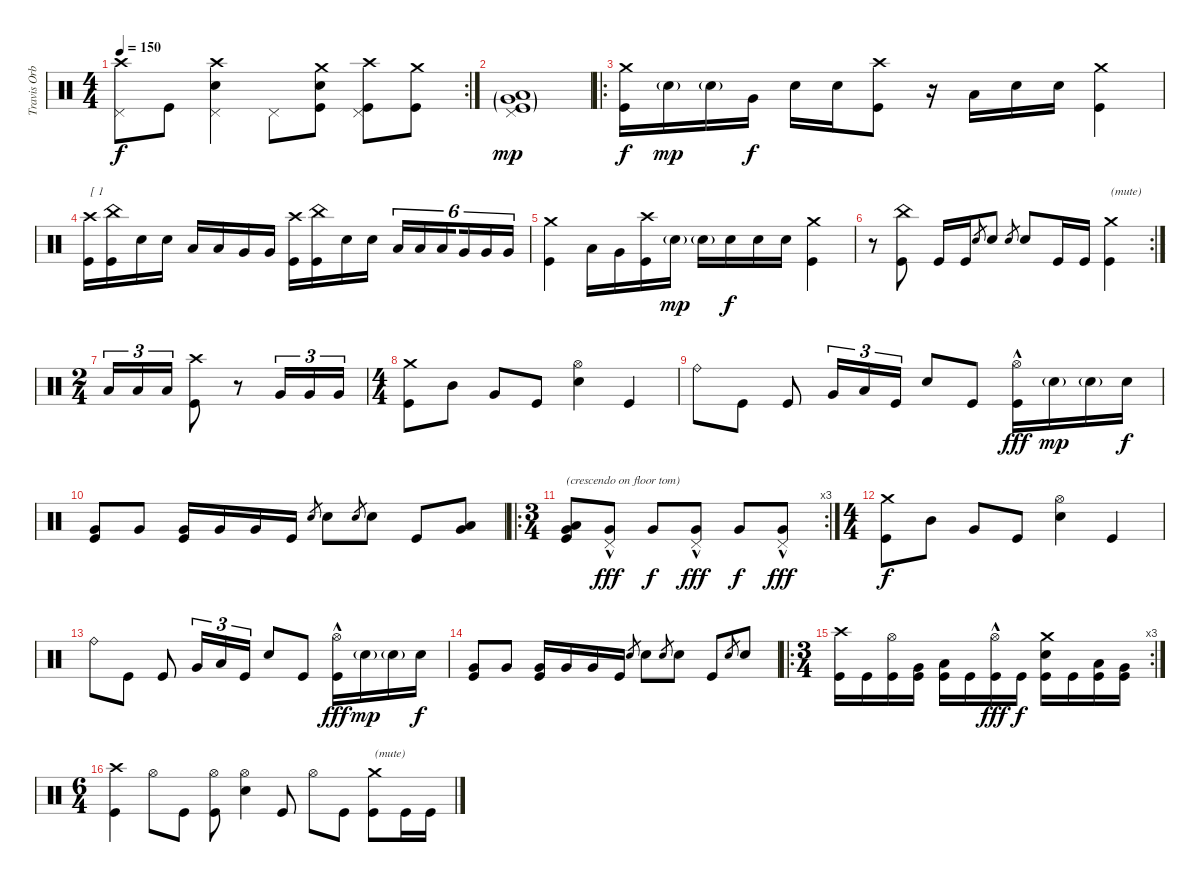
\track ("Travis Orbin" "Travis Orb") {instrument percussion}
\staff {score}
\articulation defaults
\rc 2
\ts (4 4)
\tempo 150
\clef neutral
\ks c
("Crash high (hit)" "Pedal Hi-Hat (hit)").8{dy f} "Kick (hit)".8 ("Crash high (hit)" "Electric Snare (hit)" "Pedal Hi-Hat (hit)").4 "Pedal Hi-Hat (hit)".8 ("Crash medium (hit)" "Electric Snare (hit)" "Kick (hit)").8 ("Crash high (hit)" "Kick (hit)" "Pedal Hi-Hat (hit)").8 ("Crash medium (hit)" "Kick (hit)").8 |
("Low Tom (hit)"{g} "Very Low Tom (hit)"{g} "Kick (hit)"{g} "Pedal Hi-Hat (hit)").1{dy mp} |
\ro
("Crash medium (hit)" "Kick (hit)").16{dy f} "Electric Snare (hit)"{g}.16{dy mp} "Electric Snare (hit)"{g}.16 "Very Low Tom (hit)".16{dy f} "Electric Snare (hit)".16 "Electric Snare (hit)".16 ("Crash high (hit)" "Kick (hit)").8 r.16 "Low Tom (hit)".16 "Electric Snare (hit)".16 "Electric Snare (hit)".16 ("Crash medium (hit)" "Kick (hit)").4 |
("Crash high (hit)" "Kick (hit)").16{txt "[ 1"} ("China (hit)" "Kick (hit)").16 "Electric Snare (hit)".16 "Electric Snare (hit)".16 "Low Tom (hit)".16 "Low Tom (hit)".16 "Very Low Tom (hit)".16 "Very Low Tom (hit)".16 ("Crash high (hit)" "Kick (hit)").16 ("China (hit)" "Kick (hit)").16 "Electric Snare (hit)".16 "Electric Snare (hit)".16 "Low Tom (hit)".16{tu (6 4)} "Low Tom (hit)".16{tu (6 4)} "Low Tom (hit)".16{tu (6 4) beam splitsecondary} "Very Low Tom (hit)".16{tu (6 4)} "Very Low Tom (hit)".16{tu (6 4)} "Very Low Tom (hit)".16{tu (6 4)} |
("Crash medium (hit)" "Kick (hit)").4 "Low Tom (hit)".16 "Very Low Tom (hit)".16 ("Crash high (hit)" "Kick (hit)").16 "Electric Snare (hit)"{g}.16{dy mp} "Electric Snare (hit)"{g}.16 "Electric Snare (hit)".16{dy f} "Electric Snare (hit)".16 "Electric Snare (hit)".16 ("Crash medium (hit)" "Kick (hit)").4 |
\rc 2
r.8 ("China (hit)" "Kick (hit)").8 "Kick (hit)".16 "Kick (hit)".16 "Electric Snare (hit)".8{gr} "Electric Snare (hit)".8 "Electric Snare (hit)".8{gr} "Electric Snare (hit)".8 "Kick (hit)".16 "Kick (hit)".16 ("Crash medium (hit)" "Kick (hit)").4{txt "(mute)"} |
\ts (2 4)
"Low Tom (hit)".16{tu (3 2)} "Low Tom (hit)".16{tu (3 2)} "Low Tom (hit)".16{tu (3 2)} ("Crash high (hit)" "Kick (hit)").8 r.8 "Very Low Tom (hit)".16{tu (3 2)} "Very Low Tom (hit)".16{tu (3 2)} "Very Low Tom (hit)".16{tu (3 2)} |
\ts (4 4)
("Crash medium (hit)" "Kick (hit)").8 "Mid Tom (hit)".8 "Very Low Tom (hit)".8 "Kick (hit)".8 ("Hi-Hat (open)" "Electric Snare (hit)").4 "Kick (hit)".4 |
"Ride (bell)".8 "Kick (hit)".8 "Kick (hit)".8 "Very Low Tom (hit)".16{tu (3 2)} "Low Tom (hit)".16{tu (3 2)} "Kick (hit)".16{tu (3 2)} "Electric Snare (hit)".8 "Kick (hit)".8 ("Hi-Hat (open)"{hac} "Kick (hit)").16{dy fff} "Electric Snare (hit)"{g}.16{dy mp} "Electric Snare (hit)"{g}.16 "Electric Snare (hit)".16{dy f} |
("Very Low Tom (hit)" "Kick (hit)").8 "Very Low Tom (hit)".8 ("Very Low Tom (hit)" "Kick (hit)").16 "Very Low Tom (hit)".16 "Very Low Tom (hit)".16 "Kick (hit)".16 "Electric Snare (hit)".8{gr} "Electric Snare (hit)".8 "Electric Snare (hit)".8{gr} "Electric Snare (hit)".8 "Kick (hit)".8 ("Low Tom (hit)" "Very Low Tom (hit)").8 |
\ro
\rc 3
\ts (3 4)
("Low Tom (hit)" "Very Low Tom (hit)" "Kick (hit)").8{txt "(crescendo on floor tom)"} ("Very Low Tom (hit)" "Pedal Hi-Hat (hit)"{hac}).8{dy fff} "Very Low Tom (hit)".8{dy f} ("Very Low Tom (hit)" "Pedal Hi-Hat (hit)"{hac}).8{dy fff} "Very Low Tom (hit)".8{dy f} ("Very Low Tom (hit)" "Pedal Hi-Hat (hit)"{hac}).8{dy fff} |
\ts (4 4)
("Crash medium (hit)" "Kick (hit)").8{dy f} "Mid Tom (hit)".8 "Very Low Tom (hit)".8 "Kick (hit)".8 ("Hi-Hat (open)" "Electric Snare (hit)").4 "Kick (hit)".4 |
"Ride (bell)".8 "Kick (hit)".8 "Kick (hit)".8 "Very Low Tom (hit)".16{tu (3 2)} "Low Tom (hit)".16{tu (3 2)} "Kick (hit)".16{tu (3 2)} "Electric Snare (hit)".8 "Kick (hit)".8 ("Hi-Hat (open)"{hac} "Kick (hit)").16{dy fff} "Electric Snare (hit)"{g}.16{dy mp} "Electric Snare (hit)"{g}.16 "Electric Snare (hit)".16{dy f} |
("Very Low Tom (hit)" "Kick (hit)").8 "Very Low Tom (hit)".8 ("Very Low Tom (hit)" "Kick (hit)").16 "Very Low Tom (hit)".16 "Very Low Tom (hit)".16 "Kick (hit)".16 "Electric Snare (hit)".8{gr} "Electric Snare (hit)".8 "Electric Snare (hit)".8{gr} "Electric Snare (hit)".8 "Kick (hit)".8 "Electric Snare (hit)".8{gr} "Electric Snare (hit)".8 |
\ro
\rc 3
\ts (3 4)
("Crash high (hit)" "Kick (hit)").16 "Kick (hit)".16 ("Hi-Hat (open)" "Kick (hit)").16 ("Very Low Tom (hit)" "Kick (hit)").16 ("Low Tom (hit)" "Kick (hit)").16 "Kick (hit)".16 ("Hi-Hat (open)"{hac} "Kick (hit)").16{dy fff} "Kick (hit)".16{dy f} ("Crash medium (hit)" "Electric Snare (hit)" "Kick (hit)").16 "Kick (hit)".16 ("Low Tom (hit)" "Kick (hit)").16 ("Very Low Tom (hit)" "Kick (hit)").16 |
\ts (6 4)
("Crash high (hit)" "Kick (hit)").4 "Hi-Hat (open)".8 "Kick (hit)".8 ("Hi-Hat (open)" "Kick (hit)").8 ("Hi-Hat (open)" "Electric Snare (hit)").4 "Kick (hit)".8 "Hi-Hat (open)".8 "Kick (hit)".8 ("Crash medium (hit)" "Kick (hit)").8{txt "(mute)"} "Kick (hit)".16 "Kick (hit)".16
